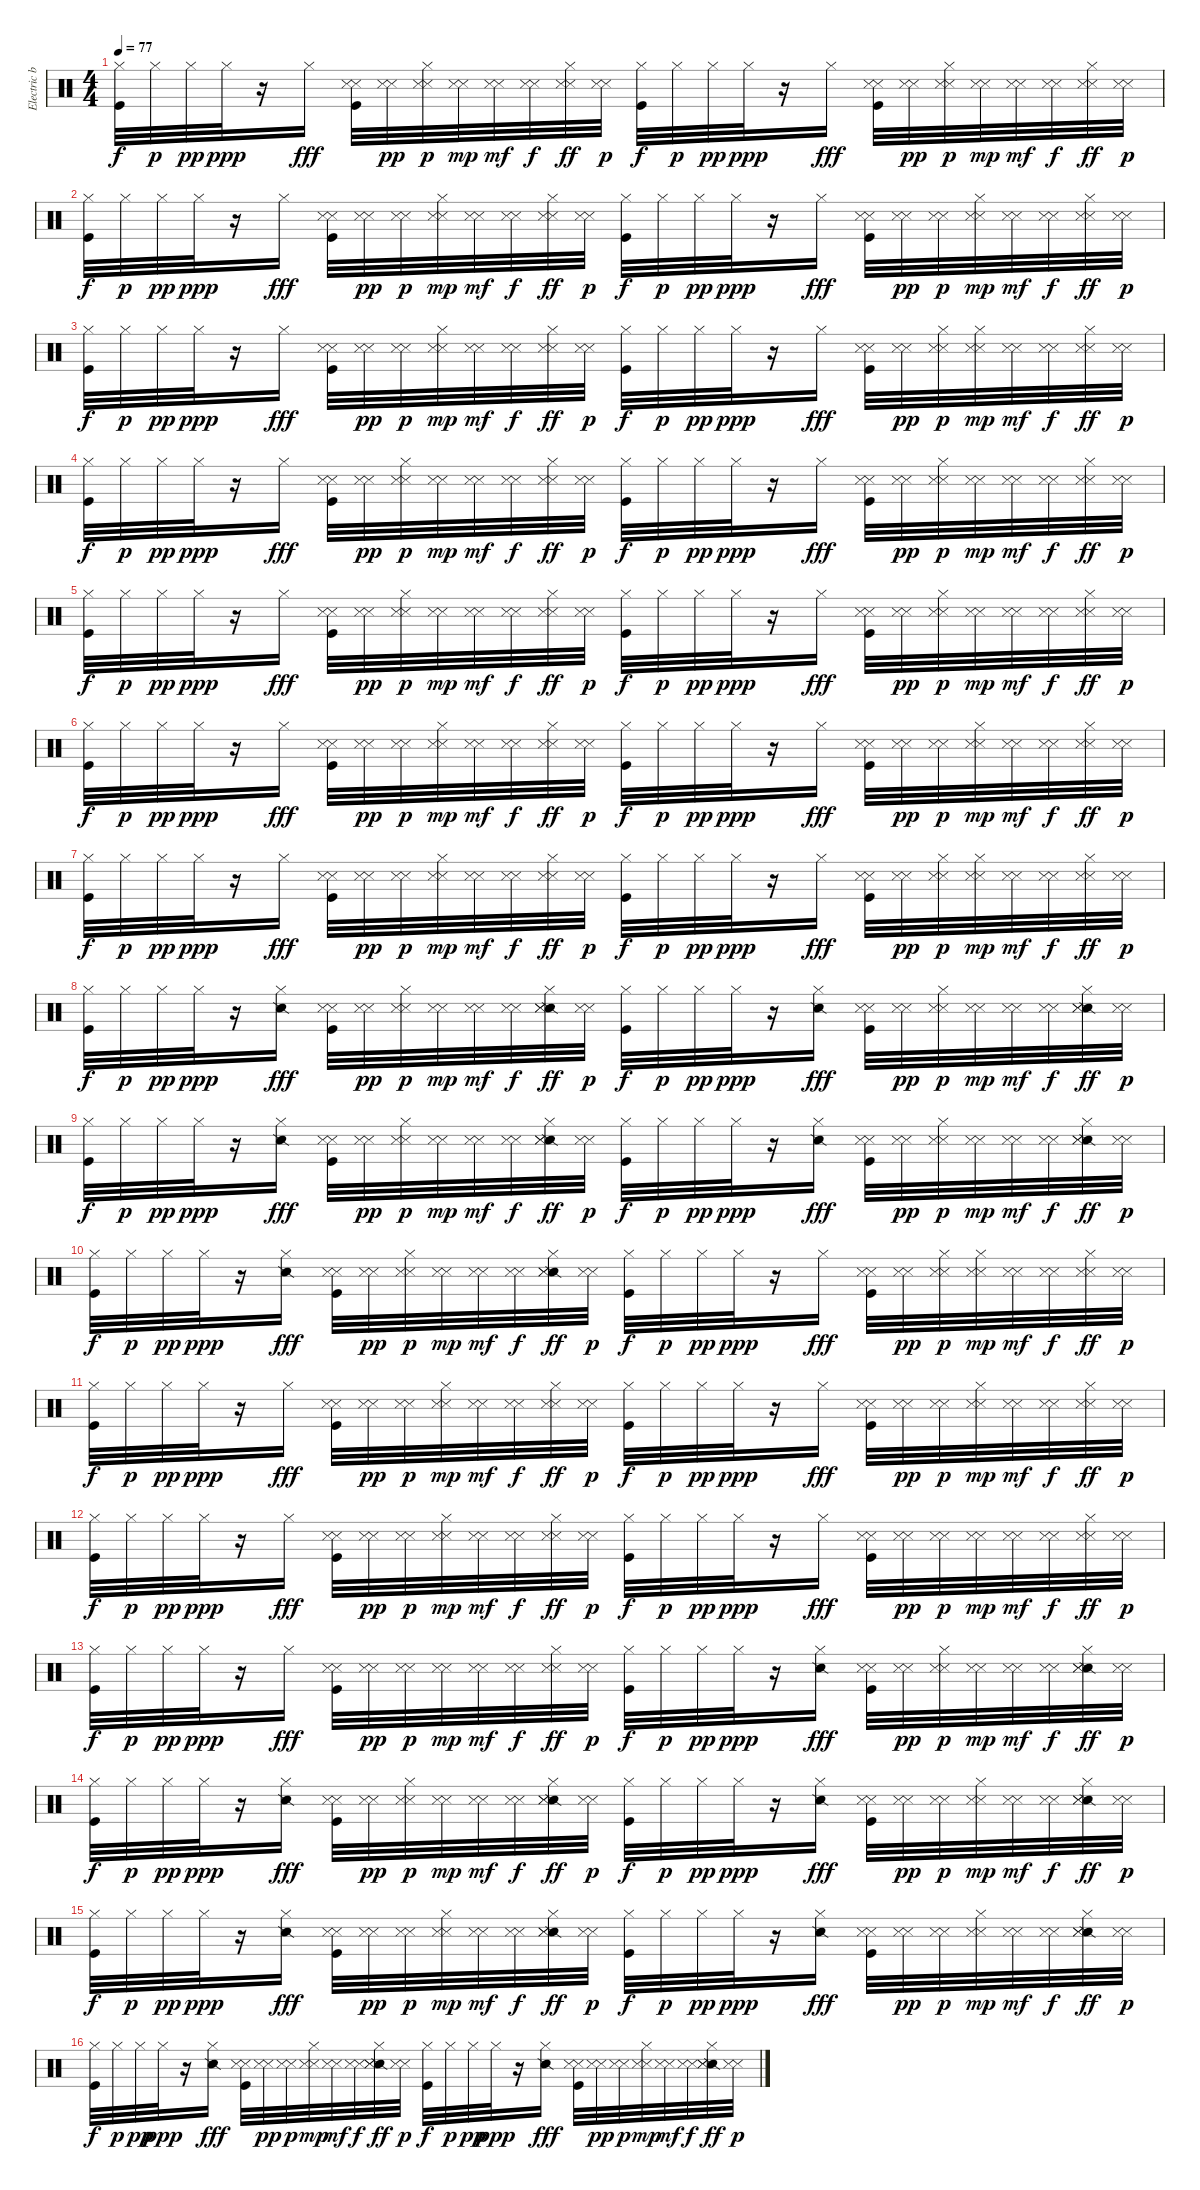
\track ("Electric beat" "Electric b") {instrument percussion}
\staff {score}
\articulation defaults
\ts (4 4)
\tempo 77
\clef neutral
\ks c
("Hi-Hat (closed)" "Kick (hit)").32{dy f} "Hi-Hat (closed)".32{dy p} "Hi-Hat (closed)".32{dy pp} "Hi-Hat (closed)".32{dy ppp} r.16 "Hi-Hat (closed)".16{dy fff} ("Snare (side stick) 3" "Metronome (hit)" "Kick (hit)").32 ("Snare (side stick) 3" "Metronome (hit)").32{dy pp} ("Hi-Hat (closed)" "Snare (side stick) 3" "Metronome (hit)").32{dy p} ("Snare (side stick) 3" "Metronome (hit)").32{dy mp} ("Snare (side stick) 3" "Metronome (hit)").32{dy mf} ("Snare (side stick) 3" "Metronome (hit)").32{dy f} ("Hi-Hat (closed)" "Snare (side stick) 3" "Metronome (hit)").32{dy ff} ("Snare (side stick) 3" "Metronome (hit)").32{dy p} ("Hi-Hat (closed)" "Kick (hit)").32{dy f} "Hi-Hat (closed)".32{dy p} "Hi-Hat (closed)".32{dy pp} "Hi-Hat (closed)".32{dy ppp} r.16 "Hi-Hat (closed)".16{dy fff} ("Snare (side stick) 3" "Metronome (hit)" "Kick (hit)").32 ("Snare (side stick) 3" "Metronome (hit)").32{dy pp} ("Hi-Hat (closed)" "Snare (side stick) 3" "Metronome (hit)").32{dy p} ("Snare (side stick) 3" "Metronome (hit)").32{dy mp} ("Snare (side stick) 3" "Metronome (hit)").32{dy mf} ("Snare (side stick) 3" "Metronome (hit)").32{dy f} ("Hi-Hat (closed)" "Snare (side stick) 3" "Metronome (hit)").32{dy ff} ("Snare (side stick) 3" "Metronome (hit)").32{dy p} |
("Hi-Hat (closed)" "Kick (hit)").32{dy f} "Hi-Hat (closed)".32{dy p} "Hi-Hat (closed)".32{dy pp} "Hi-Hat (closed)".32{dy ppp} r.16 "Hi-Hat (closed)".16{dy fff} ("Snare (side stick) 3" "Metronome (hit)" "Kick (hit)").32 ("Snare (side stick) 3" "Metronome (hit)").32{dy pp} ("Snare (side stick) 3" "Metronome (hit)").32{dy p} ("Hi-Hat (closed)" "Snare (side stick) 3" "Metronome (hit)").32{dy mp} ("Snare (side stick) 3" "Metronome (hit)").32{dy mf} ("Snare (side stick) 3" "Metronome (hit)").32{dy f} ("Hi-Hat (closed)" "Snare (side stick) 3" "Metronome (hit)").32{dy ff} ("Snare (side stick) 3" "Metronome (hit)").32{dy p} ("Hi-Hat (closed)" "Kick (hit)").32{dy f} "Hi-Hat (closed)".32{dy p} "Hi-Hat (closed)".32{dy pp} "Hi-Hat (closed)".32{dy ppp} r.16 "Hi-Hat (closed)".16{dy fff} ("Snare (side stick) 3" "Metronome (hit)" "Kick (hit)").32 ("Snare (side stick) 3" "Metronome (hit)").32{dy pp} ("Snare (side stick) 3" "Metronome (hit)").32{dy p} ("Hi-Hat (closed)" "Snare (side stick) 3" "Metronome (hit)").32{dy mp} ("Snare (side stick) 3" "Metronome (hit)").32{dy mf} ("Snare (side stick) 3" "Metronome (hit)").32{dy f} ("Hi-Hat (closed)" "Snare (side stick) 3" "Metronome (hit)").32{dy ff} ("Snare (side stick) 3" "Metronome (hit)").32{dy p} |
("Hi-Hat (closed)" "Kick (hit)").32{dy f} "Hi-Hat (closed)".32{dy p} "Hi-Hat (closed)".32{dy pp} "Hi-Hat (closed)".32{dy ppp} r.16 "Hi-Hat (closed)".16{dy fff} ("Snare (side stick) 3" "Metronome (hit)" "Kick (hit)").32 ("Snare (side stick) 3" "Metronome (hit)").32{dy pp} ("Snare (side stick) 3" "Metronome (hit)").32{dy p} ("Hi-Hat (closed)" "Snare (side stick) 3" "Metronome (hit)").32{dy mp} ("Snare (side stick) 3" "Metronome (hit)").32{dy mf} ("Snare (side stick) 3" "Metronome (hit)").32{dy f} ("Hi-Hat (closed)" "Snare (side stick) 3" "Metronome (hit)").32{dy ff} ("Snare (side stick) 3" "Metronome (hit)").32{dy p} ("Hi-Hat (closed)" "Kick (hit)").32{dy f} "Hi-Hat (closed)".32{dy p} "Hi-Hat (closed)".32{dy pp} "Hi-Hat (closed)".32{dy ppp} r.16 "Hi-Hat (closed)".16{dy fff} ("Snare (side stick) 3" "Metronome (hit)" "Kick (hit)").32 ("Snare (side stick) 3" "Metronome (hit)").32{dy pp} ("Hi-Hat (closed)" "Snare (side stick) 3" "Metronome (hit)").32{dy p} ("Hi-Hat (closed)" "Snare (side stick) 3" "Metronome (hit)").32{dy mp} ("Snare (side stick) 3" "Metronome (hit)").32{dy mf} ("Snare (side stick) 3" "Metronome (hit)").32{dy f} ("Hi-Hat (closed)" "Snare (side stick) 3" "Metronome (hit)").32{dy ff} ("Snare (side stick) 3" "Metronome (hit)").32{dy p} |
("Hi-Hat (closed)" "Kick (hit)").32{dy f} "Hi-Hat (closed)".32{dy p} "Hi-Hat (closed)".32{dy pp} "Hi-Hat (closed)".32{dy ppp} r.16 "Hi-Hat (closed)".16{dy fff} ("Snare (side stick) 3" "Metronome (hit)" "Kick (hit)").32 ("Snare (side stick) 3" "Metronome (hit)").32{dy pp} ("Hi-Hat (closed)" "Snare (side stick) 3" "Metronome (hit)").32{dy p} ("Snare (side stick) 3" "Metronome (hit)").32{dy mp} ("Snare (side stick) 3" "Metronome (hit)").32{dy mf} ("Snare (side stick) 3" "Metronome (hit)").32{dy f} ("Hi-Hat (closed)" "Snare (side stick) 3" "Metronome (hit)").32{dy ff} ("Snare (side stick) 3" "Metronome (hit)").32{dy p} ("Hi-Hat (closed)" "Kick (hit)").32{dy f} "Hi-Hat (closed)".32{dy p} "Hi-Hat (closed)".32{dy pp} "Hi-Hat (closed)".32{dy ppp} r.16 "Hi-Hat (closed)".16{dy fff} ("Snare (side stick) 3" "Metronome (hit)" "Kick (hit)").32 ("Snare (side stick) 3" "Metronome (hit)").32{dy pp} ("Hi-Hat (closed)" "Snare (side stick) 3" "Metronome (hit)").32{dy p} ("Snare (side stick) 3" "Metronome (hit)").32{dy mp} ("Snare (side stick) 3" "Metronome (hit)").32{dy mf} ("Snare (side stick) 3" "Metronome (hit)").32{dy f} ("Hi-Hat (closed)" "Snare (side stick) 3" "Metronome (hit)").32{dy ff} ("Snare (side stick) 3" "Metronome (hit)").32{dy p} |
("Hi-Hat (closed)" "Kick (hit)").32{dy f} "Hi-Hat (closed)".32{dy p} "Hi-Hat (closed)".32{dy pp} "Hi-Hat (closed)".32{dy ppp} r.16 "Hi-Hat (closed)".16{dy fff} ("Snare (side stick) 3" "Metronome (hit)" "Kick (hit)").32 ("Snare (side stick) 3" "Metronome (hit)").32{dy pp} ("Hi-Hat (closed)" "Snare (side stick) 3" "Metronome (hit)").32{dy p} ("Snare (side stick) 3" "Metronome (hit)").32{dy mp} ("Snare (side stick) 3" "Metronome (hit)").32{dy mf} ("Snare (side stick) 3" "Metronome (hit)").32{dy f} ("Hi-Hat (closed)" "Snare (side stick) 3" "Metronome (hit)").32{dy ff} ("Snare (side stick) 3" "Metronome (hit)").32{dy p} ("Hi-Hat (closed)" "Kick (hit)").32{dy f} "Hi-Hat (closed)".32{dy p} "Hi-Hat (closed)".32{dy pp} "Hi-Hat (closed)".32{dy ppp} r.16 "Hi-Hat (closed)".16{dy fff} ("Snare (side stick) 3" "Metronome (hit)" "Kick (hit)").32 ("Snare (side stick) 3" "Metronome (hit)").32{dy pp} ("Hi-Hat (closed)" "Snare (side stick) 3" "Metronome (hit)").32{dy p} ("Snare (side stick) 3" "Metronome (hit)").32{dy mp} ("Snare (side stick) 3" "Metronome (hit)").32{dy mf} ("Snare (side stick) 3" "Metronome (hit)").32{dy f} ("Hi-Hat (closed)" "Snare (side stick) 3" "Metronome (hit)").32{dy ff} ("Snare (side stick) 3" "Metronome (hit)").32{dy p} |
("Hi-Hat (closed)" "Kick (hit)").32{dy f} "Hi-Hat (closed)".32{dy p} "Hi-Hat (closed)".32{dy pp} "Hi-Hat (closed)".32{dy ppp} r.16 "Hi-Hat (closed)".16{dy fff} ("Snare (side stick) 3" "Metronome (hit)" "Kick (hit)").32 ("Snare (side stick) 3" "Metronome (hit)").32{dy pp} ("Snare (side stick) 3" "Metronome (hit)").32{dy p} ("Hi-Hat (closed)" "Snare (side stick) 3" "Metronome (hit)").32{dy mp} ("Snare (side stick) 3" "Metronome (hit)").32{dy mf} ("Snare (side stick) 3" "Metronome (hit)").32{dy f} ("Hi-Hat (closed)" "Snare (side stick) 3" "Metronome (hit)").32{dy ff} ("Snare (side stick) 3" "Metronome (hit)").32{dy p} ("Hi-Hat (closed)" "Kick (hit)").32{dy f} "Hi-Hat (closed)".32{dy p} "Hi-Hat (closed)".32{dy pp} "Hi-Hat (closed)".32{dy ppp} r.16 "Hi-Hat (closed)".16{dy fff} ("Snare (side stick) 3" "Metronome (hit)" "Kick (hit)").32 ("Snare (side stick) 3" "Metronome (hit)").32{dy pp} ("Snare (side stick) 3" "Metronome (hit)").32{dy p} ("Hi-Hat (closed)" "Snare (side stick) 3" "Metronome (hit)").32{dy mp} ("Snare (side stick) 3" "Metronome (hit)").32{dy mf} ("Snare (side stick) 3" "Metronome (hit)").32{dy f} ("Hi-Hat (closed)" "Snare (side stick) 3" "Metronome (hit)").32{dy ff} ("Snare (side stick) 3" "Metronome (hit)").32{dy p} |
("Hi-Hat (closed)" "Kick (hit)").32{dy f} "Hi-Hat (closed)".32{dy p} "Hi-Hat (closed)".32{dy pp} "Hi-Hat (closed)".32{dy ppp} r.16 "Hi-Hat (closed)".16{dy fff} ("Snare (side stick) 3" "Metronome (hit)" "Kick (hit)").32 ("Snare (side stick) 3" "Metronome (hit)").32{dy pp} ("Snare (side stick) 3" "Metronome (hit)").32{dy p} ("Hi-Hat (closed)" "Snare (side stick) 3" "Metronome (hit)").32{dy mp} ("Snare (side stick) 3" "Metronome (hit)").32{dy mf} ("Snare (side stick) 3" "Metronome (hit)").32{dy f} ("Hi-Hat (closed)" "Snare (side stick) 3" "Metronome (hit)").32{dy ff} ("Snare (side stick) 3" "Metronome (hit)").32{dy p} ("Hi-Hat (closed)" "Kick (hit)").32{dy f} "Hi-Hat (closed)".32{dy p} "Hi-Hat (closed)".32{dy pp} "Hi-Hat (closed)".32{dy ppp} r.16 "Hi-Hat (closed)".16{dy fff} ("Snare (side stick) 3" "Metronome (hit)" "Kick (hit)").32 ("Snare (side stick) 3" "Metronome (hit)").32{dy pp} ("Hi-Hat (closed)" "Snare (side stick) 3" "Metronome (hit)").32{dy p} ("Hi-Hat (closed)" "Snare (side stick) 3" "Metronome (hit)").32{dy mp} ("Snare (side stick) 3" "Metronome (hit)").32{dy mf} ("Snare (side stick) 3" "Metronome (hit)").32{dy f} ("Hi-Hat (closed)" "Snare (side stick) 3" "Metronome (hit)").32{dy ff} ("Snare (side stick) 3" "Metronome (hit)").32{dy p} |
("Hi-Hat (closed)" "Kick (hit)").32{dy f} "Hi-Hat (closed)".32{dy p} "Hi-Hat (closed)".32{dy pp} "Hi-Hat (closed)".32{dy ppp} r.16 ("Hi-Hat (closed)" "Snare (side stick) 2").16{dy fff} ("Snare (side stick) 3" "Metronome (hit)" "Kick (hit)").32 ("Snare (side stick) 3" "Metronome (hit)").32{dy pp} ("Hi-Hat (closed)" "Snare (side stick) 3" "Metronome (hit)").32{dy p} ("Snare (side stick) 3" "Metronome (hit)").32{dy mp} ("Snare (side stick) 3" "Metronome (hit)").32{dy mf} ("Snare (side stick) 3" "Metronome (hit)").32{dy f} ("Hi-Hat (closed)" "Snare (side stick) 2" "Snare (side stick) 3" "Metronome (hit)").32{dy ff} ("Snare (side stick) 3" "Metronome (hit)").32{dy p} ("Hi-Hat (closed)" "Kick (hit)").32{dy f} "Hi-Hat (closed)".32{dy p} "Hi-Hat (closed)".32{dy pp} "Hi-Hat (closed)".32{dy ppp} r.16 ("Hi-Hat (closed)" "Snare (side stick) 2").16{dy fff} ("Snare (side stick) 3" "Metronome (hit)" "Kick (hit)").32 ("Snare (side stick) 3" "Metronome (hit)").32{dy pp} ("Hi-Hat (closed)" "Snare (side stick) 3" "Metronome (hit)").32{dy p} ("Snare (side stick) 3" "Metronome (hit)").32{dy mp} ("Snare (side stick) 3" "Metronome (hit)").32{dy mf} ("Snare (side stick) 3" "Metronome (hit)").32{dy f} ("Hi-Hat (closed)" "Snare (side stick) 2" "Snare (side stick) 3" "Metronome (hit)").32{dy ff} ("Snare (side stick) 3" "Metronome (hit)").32{dy p} |
("Hi-Hat (closed)" "Kick (hit)").32{dy f} "Hi-Hat (closed)".32{dy p} "Hi-Hat (closed)".32{dy pp} "Hi-Hat (closed)".32{dy ppp} r.16 ("Hi-Hat (closed)" "Snare (side stick) 2").16{dy fff} ("Snare (side stick) 3" "Metronome (hit)" "Kick (hit)").32 ("Snare (side stick) 3" "Metronome (hit)").32{dy pp} ("Hi-Hat (closed)" "Snare (side stick) 3" "Metronome (hit)").32{dy p} ("Snare (side stick) 3" "Metronome (hit)").32{dy mp} ("Snare (side stick) 3" "Metronome (hit)").32{dy mf} ("Snare (side stick) 3" "Metronome (hit)").32{dy f} ("Hi-Hat (closed)" "Snare (side stick) 2" "Snare (side stick) 3" "Metronome (hit)").32{dy ff} ("Snare (side stick) 3" "Metronome (hit)").32{dy p} ("Hi-Hat (closed)" "Kick (hit)").32{dy f} "Hi-Hat (closed)".32{dy p} "Hi-Hat (closed)".32{dy pp} "Hi-Hat (closed)".32{dy ppp} r.16 ("Hi-Hat (closed)" "Snare (side stick) 2").16{dy fff} ("Snare (side stick) 3" "Metronome (hit)" "Kick (hit)").32 ("Snare (side stick) 3" "Metronome (hit)").32{dy pp} ("Hi-Hat (closed)" "Snare (side stick) 3" "Metronome (hit)").32{dy p} ("Snare (side stick) 3" "Metronome (hit)").32{dy mp} ("Snare (side stick) 3" "Metronome (hit)").32{dy mf} ("Snare (side stick) 3" "Metronome (hit)").32{dy f} ("Hi-Hat (closed)" "Snare (side stick) 2" "Snare (side stick) 3" "Metronome (hit)").32{dy ff} ("Snare (side stick) 3" "Metronome (hit)").32{dy p} |
("Hi-Hat (closed)" "Kick (hit)").32{dy f} "Hi-Hat (closed)".32{dy p} "Hi-Hat (closed)".32{dy pp} "Hi-Hat (closed)".32{dy ppp} r.16 ("Hi-Hat (closed)" "Snare (side stick) 2").16{dy fff} ("Snare (side stick) 3" "Metronome (hit)" "Kick (hit)").32 ("Snare (side stick) 3" "Metronome (hit)").32{dy pp} ("Hi-Hat (closed)" "Snare (side stick) 3" "Metronome (hit)").32{dy p} ("Snare (side stick) 3" "Metronome (hit)").32{dy mp} ("Snare (side stick) 3" "Metronome (hit)").32{dy mf} ("Snare (side stick) 3" "Metronome (hit)").32{dy f} ("Hi-Hat (closed)" "Snare (side stick) 2" "Snare (side stick) 3" "Metronome (hit)").32{dy ff} ("Snare (side stick) 3" "Metronome (hit)").32{dy p} ("Hi-Hat (closed)" "Kick (hit)").32{dy f} "Hi-Hat (closed)".32{dy p} "Hi-Hat (closed)".32{dy pp} "Hi-Hat (closed)".32{dy ppp} r.16 "Hi-Hat (closed)".16{dy fff} ("Snare (side stick) 3" "Metronome (hit)" "Kick (hit)").32 ("Snare (side stick) 3" "Metronome (hit)").32{dy pp} ("Hi-Hat (closed)" "Snare (side stick) 3" "Metronome (hit)").32{dy p} ("Hi-Hat (closed)" "Snare (side stick) 3" "Metronome (hit)").32{dy mp} ("Snare (side stick) 3" "Metronome (hit)").32{dy mf} ("Snare (side stick) 3" "Metronome (hit)").32{dy f} ("Hi-Hat (closed)" "Snare (side stick) 3" "Metronome (hit)").32{dy ff} ("Snare (side stick) 3" "Metronome (hit)").32{dy p} |
("Hi-Hat (closed)" "Kick (hit)").32{dy f} "Hi-Hat (closed)".32{dy p} "Hi-Hat (closed)".32{dy pp} "Hi-Hat (closed)".32{dy ppp} r.16 "Hi-Hat (closed)".16{dy fff} ("Snare (side stick) 3" "Metronome (hit)" "Kick (hit)").32 ("Snare (side stick) 3" "Metronome (hit)").32{dy pp} ("Snare (side stick) 3" "Metronome (hit)").32{dy p} ("Hi-Hat (closed)" "Snare (side stick) 3" "Metronome (hit)").32{dy mp} ("Snare (side stick) 3" "Metronome (hit)").32{dy mf} ("Snare (side stick) 3" "Metronome (hit)").32{dy f} ("Hi-Hat (closed)" "Snare (side stick) 3" "Metronome (hit)").32{dy ff} ("Snare (side stick) 3" "Metronome (hit)").32{dy p} ("Hi-Hat (closed)" "Kick (hit)").32{dy f} "Hi-Hat (closed)".32{dy p} "Hi-Hat (closed)".32{dy pp} "Hi-Hat (closed)".32{dy ppp} r.16 "Hi-Hat (closed)".16{dy fff} ("Snare (side stick) 3" "Metronome (hit)" "Kick (hit)").32 ("Snare (side stick) 3" "Metronome (hit)").32{dy pp} ("Snare (side stick) 3" "Metronome (hit)").32{dy p} ("Hi-Hat (closed)" "Snare (side stick) 3" "Metronome (hit)").32{dy mp} ("Snare (side stick) 3" "Metronome (hit)").32{dy mf} ("Snare (side stick) 3" "Metronome (hit)").32{dy f} ("Hi-Hat (closed)" "Snare (side stick) 3" "Metronome (hit)").32{dy ff} ("Snare (side stick) 3" "Metronome (hit)").32{dy p} |
("Hi-Hat (closed)" "Kick (hit)").32{dy f} "Hi-Hat (closed)".32{dy p} "Hi-Hat (closed)".32{dy pp} "Hi-Hat (closed)".32{dy ppp} r.16 "Hi-Hat (closed)".16{dy fff} ("Snare (side stick) 3" "Metronome (hit)" "Kick (hit)").32 ("Snare (side stick) 3" "Metronome (hit)").32{dy pp} ("Snare (side stick) 3" "Metronome (hit)").32{dy p} ("Hi-Hat (closed)" "Snare (side stick) 3" "Metronome (hit)").32{dy mp} ("Snare (side stick) 3" "Metronome (hit)").32{dy mf} ("Snare (side stick) 3" "Metronome (hit)").32{dy f} ("Hi-Hat (closed)" "Snare (side stick) 3" "Metronome (hit)").32{dy ff} ("Snare (side stick) 3" "Metronome (hit)").32{dy p} ("Hi-Hat (closed)" "Kick (hit)").32{dy f} "Hi-Hat (closed)".32{dy p} "Hi-Hat (closed)".32{dy pp} "Hi-Hat (closed)".32{dy ppp} r.16 "Hi-Hat (closed)".16{dy fff} ("Snare (side stick) 3" "Metronome (hit)" "Kick (hit)").32 ("Snare (side stick) 3" "Metronome (hit)").32{dy pp} ("Snare (side stick) 3" "Metronome (hit)").32{dy p} ("Snare (side stick) 3" "Metronome (hit)").32{dy mp} ("Snare (side stick) 3" "Metronome (hit)").32{dy mf} ("Snare (side stick) 3" "Metronome (hit)").32{dy f} ("Hi-Hat (closed)" "Snare (side stick) 3" "Metronome (hit)").32{dy ff} ("Snare (side stick) 3" "Metronome (hit)").32{dy p} |
("Hi-Hat (closed)" "Kick (hit)").32{dy f} "Hi-Hat (closed)".32{dy p} "Hi-Hat (closed)".32{dy pp} "Hi-Hat (closed)".32{dy ppp} r.16 "Hi-Hat (closed)".16{dy fff} ("Snare (side stick) 3" "Metronome (hit)" "Kick (hit)").32 ("Snare (side stick) 3" "Metronome (hit)").32{dy pp} ("Snare (side stick) 3" "Metronome (hit)").32{dy p} ("Snare (side stick) 3" "Metronome (hit)").32{dy mp} ("Snare (side stick) 3" "Metronome (hit)").32{dy mf} ("Snare (side stick) 3" "Metronome (hit)").32{dy f} ("Hi-Hat (closed)" "Snare (side stick) 3" "Metronome (hit)").32{dy ff} ("Snare (side stick) 3" "Metronome (hit)").32{dy p} ("Hi-Hat (closed)" "Kick (hit)").32{dy f} "Hi-Hat (closed)".32{dy p} "Hi-Hat (closed)".32{dy pp} "Hi-Hat (closed)".32{dy ppp} r.16 ("Hi-Hat (closed)" "Snare (side stick) 2").16{dy fff} ("Snare (side stick) 3" "Metronome (hit)" "Kick (hit)").32 ("Snare (side stick) 3" "Metronome (hit)").32{dy pp} ("Hi-Hat (closed)" "Snare (side stick) 3" "Metronome (hit)").32{dy p} ("Snare (side stick) 3" "Metronome (hit)").32{dy mp} ("Snare (side stick) 3" "Metronome (hit)").32{dy mf} ("Snare (side stick) 3" "Metronome (hit)").32{dy f} ("Hi-Hat (closed)" "Snare (side stick) 2" "Snare (side stick) 3" "Metronome (hit)").32{dy ff} ("Snare (side stick) 3" "Metronome (hit)").32{dy p} |
("Hi-Hat (closed)" "Kick (hit)").32{dy f} "Hi-Hat (closed)".32{dy p} "Hi-Hat (closed)".32{dy pp} "Hi-Hat (closed)".32{dy ppp} r.16 ("Hi-Hat (closed)" "Snare (side stick) 2").16{dy fff} ("Snare (side stick) 3" "Metronome (hit)" "Kick (hit)").32 ("Snare (side stick) 3" "Metronome (hit)").32{dy pp} ("Hi-Hat (closed)" "Snare (side stick) 3" "Metronome (hit)").32{dy p} ("Snare (side stick) 3" "Metronome (hit)").32{dy mp} ("Snare (side stick) 3" "Metronome (hit)").32{dy mf} ("Snare (side stick) 3" "Metronome (hit)").32{dy f} ("Hi-Hat (closed)" "Snare (side stick) 2" "Snare (side stick) 3" "Metronome (hit)").32{dy ff} ("Snare (side stick) 3" "Metronome (hit)").32{dy p} ("Hi-Hat (closed)" "Kick (hit)").32{dy f} "Hi-Hat (closed)".32{dy p} "Hi-Hat (closed)".32{dy pp} "Hi-Hat (closed)".32{dy ppp} r.16 ("Hi-Hat (closed)" "Snare (side stick) 2").16{dy fff} ("Snare (side stick) 3" "Metronome (hit)" "Kick (hit)").32 ("Snare (side stick) 3" "Metronome (hit)").32{dy pp} ("Snare (side stick) 3" "Metronome (hit)").32{dy p} ("Hi-Hat (closed)" "Snare (side stick) 3" "Metronome (hit)").32{dy mp} ("Snare (side stick) 3" "Metronome (hit)").32{dy mf} ("Snare (side stick) 3" "Metronome (hit)").32{dy f} ("Hi-Hat (closed)" "Snare (side stick) 2" "Snare (side stick) 3" "Metronome (hit)").32{dy ff} ("Snare (side stick) 3" "Metronome (hit)").32{dy p} |
("Hi-Hat (closed)" "Kick (hit)").32{dy f} "Hi-Hat (closed)".32{dy p} "Hi-Hat (closed)".32{dy pp} "Hi-Hat (closed)".32{dy ppp} r.16 ("Hi-Hat (closed)" "Snare (side stick) 2").16{dy fff} ("Snare (side stick) 3" "Metronome (hit)" "Kick (hit)").32 ("Snare (side stick) 3" "Metronome (hit)").32{dy pp} ("Snare (side stick) 3" "Metronome (hit)").32{dy p} ("Hi-Hat (closed)" "Snare (side stick) 3" "Metronome (hit)").32{dy mp} ("Snare (side stick) 3" "Metronome (hit)").32{dy mf} ("Snare (side stick) 3" "Metronome (hit)").32{dy f} ("Hi-Hat (closed)" "Snare (side stick) 2" "Snare (side stick) 3" "Metronome (hit)").32{dy ff} ("Snare (side stick) 3" "Metronome (hit)").32{dy p} ("Hi-Hat (closed)" "Kick (hit)").32{dy f} "Hi-Hat (closed)".32{dy p} "Hi-Hat (closed)".32{dy pp} "Hi-Hat (closed)".32{dy ppp} r.16 ("Hi-Hat (closed)" "Snare (side stick) 2").16{dy fff} ("Snare (side stick) 3" "Metronome (hit)" "Kick (hit)").32 ("Snare (side stick) 3" "Metronome (hit)").32{dy pp} ("Snare (side stick) 3" "Metronome (hit)").32{dy p} ("Hi-Hat (closed)" "Snare (side stick) 3" "Metronome (hit)").32{dy mp} ("Snare (side stick) 3" "Metronome (hit)").32{dy mf} ("Snare (side stick) 3" "Metronome (hit)").32{dy f} ("Hi-Hat (closed)" "Snare (side stick) 2" "Snare (side stick) 3" "Metronome (hit)").32{dy ff} ("Snare (side stick) 3" "Metronome (hit)").32{dy p} |
("Hi-Hat (closed)" "Kick (hit)").32{dy f} "Hi-Hat (closed)".32{dy p} "Hi-Hat (closed)".32{dy pp} "Hi-Hat (closed)".32{dy ppp} r.16 ("Hi-Hat (closed)" "Snare (side stick) 2").16{dy fff} ("Snare (side stick) 3" "Metronome (hit)" "Kick (hit)").32 ("Snare (side stick) 3" "Metronome (hit)").32{dy pp} ("Snare (side stick) 3" "Metronome (hit)").32{dy p} ("Hi-Hat (closed)" "Snare (side stick) 3" "Metronome (hit)").32{dy mp} ("Snare (side stick) 3" "Metronome (hit)").32{dy mf} ("Snare (side stick) 3" "Metronome (hit)").32{dy f} ("Hi-Hat (closed)" "Snare (side stick) 2" "Snare (side stick) 3" "Metronome (hit)").32{dy ff} ("Snare (side stick) 3" "Metronome (hit)").32{dy p} ("Hi-Hat (closed)" "Kick (hit)").32{dy f} "Hi-Hat (closed)".32{dy p} "Hi-Hat (closed)".32{dy pp} "Hi-Hat (closed)".32{dy ppp} r.16 ("Hi-Hat (closed)" "Snare (side stick) 2").16{dy fff} ("Snare (side stick) 3" "Metronome (hit)" "Kick (hit)").32 ("Snare (side stick) 3" "Metronome (hit)").32{dy pp} ("Snare (side stick) 3" "Metronome (hit)").32{dy p} ("Hi-Hat (closed)" "Snare (side stick) 3" "Metronome (hit)").32{dy mp} ("Snare (side stick) 3" "Metronome (hit)").32{dy mf} ("Snare (side stick) 3" "Metronome (hit)").32{dy f} ("Hi-Hat (closed)" "Snare (side stick) 2" "Snare (side stick) 3" "Metronome (hit)").32{dy ff} ("Snare (side stick) 3" "Metronome (hit)").32{dy p}
